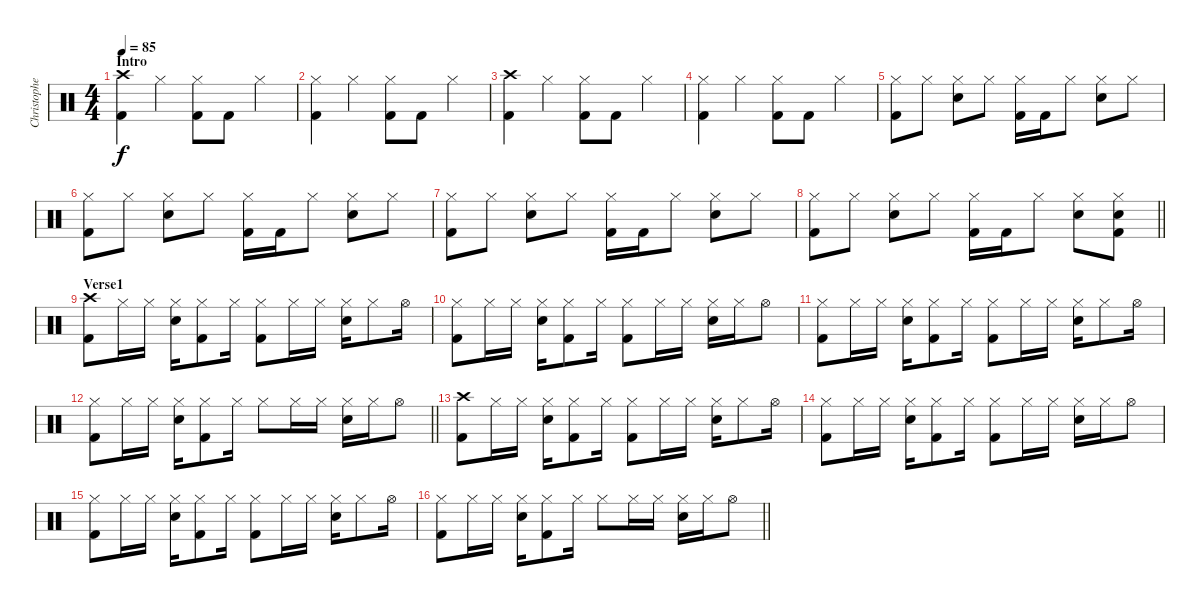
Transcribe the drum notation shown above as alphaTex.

\track ("Christopher" "Christophe") {instrument percussion}
\staff {score}
\articulation defaults
\ts (4 4)
\section ("" "Intro")
\tempo 85
\clef neutral
\ks c
("Crash high (hit)" "Kick (hit) 2").4{dy f} "Hi-Hat (closed)".4 ("Hi-Hat (closed)" "Kick (hit) 2").8 "Kick (hit) 2".8 "Hi-Hat (closed)".4 |
("Hi-Hat (closed)" "Kick (hit) 2").4 "Hi-Hat (closed)".4 ("Hi-Hat (closed)" "Kick (hit) 2").8 "Kick (hit) 2".8 "Hi-Hat (closed)".4 |
("Crash high (hit)" "Kick (hit) 2").4 "Hi-Hat (closed)".4 ("Hi-Hat (closed)" "Kick (hit) 2").8 "Kick (hit) 2".8 "Hi-Hat (closed)".4 |
("Hi-Hat (closed)" "Kick (hit) 2").4 "Hi-Hat (closed)".4 ("Hi-Hat (closed)" "Kick (hit) 2").8 "Kick (hit) 2".8 "Hi-Hat (closed)".4 |
("Hi-Hat (closed)" "Kick (hit) 2").8 "Hi-Hat (closed)".8 ("Hi-Hat (closed)" "Snare (hit) 2").8 "Hi-Hat (closed)".8 ("Hi-Hat (closed)" "Kick (hit) 2").16 "Kick (hit) 2".16 "Hi-Hat (closed)".8 ("Hi-Hat (closed)" "Snare (hit) 2").8 "Hi-Hat (closed)".8 |
("Hi-Hat (closed)" "Kick (hit) 2").8 "Hi-Hat (closed)".8 ("Hi-Hat (closed)" "Snare (hit) 2").8 "Hi-Hat (closed)".8 ("Hi-Hat (closed)" "Kick (hit) 2").16 "Kick (hit) 2".16 "Hi-Hat (closed)".8 ("Hi-Hat (closed)" "Snare (hit) 2").8 "Hi-Hat (closed)".8 |
("Hi-Hat (closed)" "Kick (hit) 2").8 "Hi-Hat (closed)".8 ("Hi-Hat (closed)" "Snare (hit) 2").8 "Hi-Hat (closed)".8 ("Hi-Hat (closed)" "Kick (hit) 2").16 "Kick (hit) 2".16 "Hi-Hat (closed)".8 ("Hi-Hat (closed)" "Snare (hit) 2").8 "Hi-Hat (closed)".8 |
\barLineRight lightlight
("Hi-Hat (closed)" "Kick (hit) 2").8 "Hi-Hat (closed)".8 ("Hi-Hat (closed)" "Snare (hit) 2").8 "Hi-Hat (closed)".8 ("Hi-Hat (closed)" "Kick (hit) 2").16 "Kick (hit) 2".16 "Hi-Hat (closed)".8 ("Hi-Hat (closed)" "Snare (hit) 2").8 ("Hi-Hat (closed)" "Snare (hit) 2" "Kick (hit) 2").8 |
\section ("" "Verse1")
("Crash high (hit)" "Kick (hit) 2").8 "Hi-Hat (closed)".16 "Hi-Hat (closed)".16 ("Hi-Hat (closed)" "Snare (hit) 2").16 ("Hi-Hat (closed)" "Kick (hit) 2").8 "Hi-Hat (closed)".16 ("Hi-Hat (closed)" "Kick (hit) 2").8 "Hi-Hat (closed)".16 "Hi-Hat (closed)".16 ("Hi-Hat (closed)" "Snare (hit) 2").16 "Hi-Hat (closed)".8 "Hi-Hat (open)".16 |
("Hi-Hat (closed)" "Kick (hit) 2").8 "Hi-Hat (closed)".16 "Hi-Hat (closed)".16 ("Hi-Hat (closed)" "Snare (hit) 2").16 ("Hi-Hat (closed)" "Kick (hit) 2").8 "Hi-Hat (closed)".16 ("Hi-Hat (closed)" "Kick (hit) 2").8 "Hi-Hat (closed)".16 "Hi-Hat (closed)".16 ("Hi-Hat (closed)" "Snare (hit) 2").16 "Hi-Hat (closed)".16 "Hi-Hat (open)".8 |
("Hi-Hat (closed)" "Kick (hit) 2").8 "Hi-Hat (closed)".16 "Hi-Hat (closed)".16 ("Hi-Hat (closed)" "Snare (hit) 2").16 ("Hi-Hat (closed)" "Kick (hit) 2").8 "Hi-Hat (closed)".16 ("Hi-Hat (closed)" "Kick (hit) 2").8 "Hi-Hat (closed)".16 "Hi-Hat (closed)".16 ("Hi-Hat (closed)" "Snare (hit) 2").16 "Hi-Hat (closed)".8 "Hi-Hat (open)".16 |
\barLineRight lightlight
("Hi-Hat (closed)" "Kick (hit) 2").8 "Hi-Hat (closed)".16 "Hi-Hat (closed)".16 ("Hi-Hat (closed)" "Snare (hit) 2").16 ("Hi-Hat (closed)" "Kick (hit) 2").8 "Hi-Hat (closed)".16 "Hi-Hat (closed)".8 "Hi-Hat (closed)".16 "Hi-Hat (closed)".16 ("Hi-Hat (closed)" "Snare (hit) 2").16 "Hi-Hat (closed)".16 "Hi-Hat (open)".8 |
("Crash high (hit)" "Kick (hit) 2").8 "Hi-Hat (closed)".16 "Hi-Hat (closed)".16 ("Hi-Hat (closed)" "Snare (hit) 2").16 ("Hi-Hat (closed)" "Kick (hit) 2").8 "Hi-Hat (closed)".16 ("Hi-Hat (closed)" "Kick (hit) 2").8 "Hi-Hat (closed)".16 "Hi-Hat (closed)".16 ("Hi-Hat (closed)" "Snare (hit) 2").16 "Hi-Hat (closed)".8 "Hi-Hat (open)".16 |
("Hi-Hat (closed)" "Kick (hit) 2").8 "Hi-Hat (closed)".16 "Hi-Hat (closed)".16 ("Hi-Hat (closed)" "Snare (hit) 2").16 ("Hi-Hat (closed)" "Kick (hit) 2").8 "Hi-Hat (closed)".16 ("Hi-Hat (closed)" "Kick (hit) 2").8 "Hi-Hat (closed)".16 "Hi-Hat (closed)".16 ("Hi-Hat (closed)" "Snare (hit) 2").16 "Hi-Hat (closed)".16 "Hi-Hat (open)".8 |
("Hi-Hat (closed)" "Kick (hit) 2").8 "Hi-Hat (closed)".16 "Hi-Hat (closed)".16 ("Hi-Hat (closed)" "Snare (hit) 2").16 ("Hi-Hat (closed)" "Kick (hit) 2").8 "Hi-Hat (closed)".16 ("Hi-Hat (closed)" "Kick (hit) 2").8 "Hi-Hat (closed)".16 "Hi-Hat (closed)".16 ("Hi-Hat (closed)" "Snare (hit) 2").16 "Hi-Hat (closed)".8 "Hi-Hat (open)".16 |
\barLineRight lightlight
("Hi-Hat (closed)" "Kick (hit) 2").8 "Hi-Hat (closed)".16 "Hi-Hat (closed)".16 ("Hi-Hat (closed)" "Snare (hit) 2").16 ("Hi-Hat (closed)" "Kick (hit) 2").8 "Hi-Hat (closed)".16 "Hi-Hat (closed)".8 "Hi-Hat (closed)".16 "Hi-Hat (closed)".16 ("Hi-Hat (closed)" "Snare (hit) 2").16 "Hi-Hat (closed)".16 "Hi-Hat (open)".8
